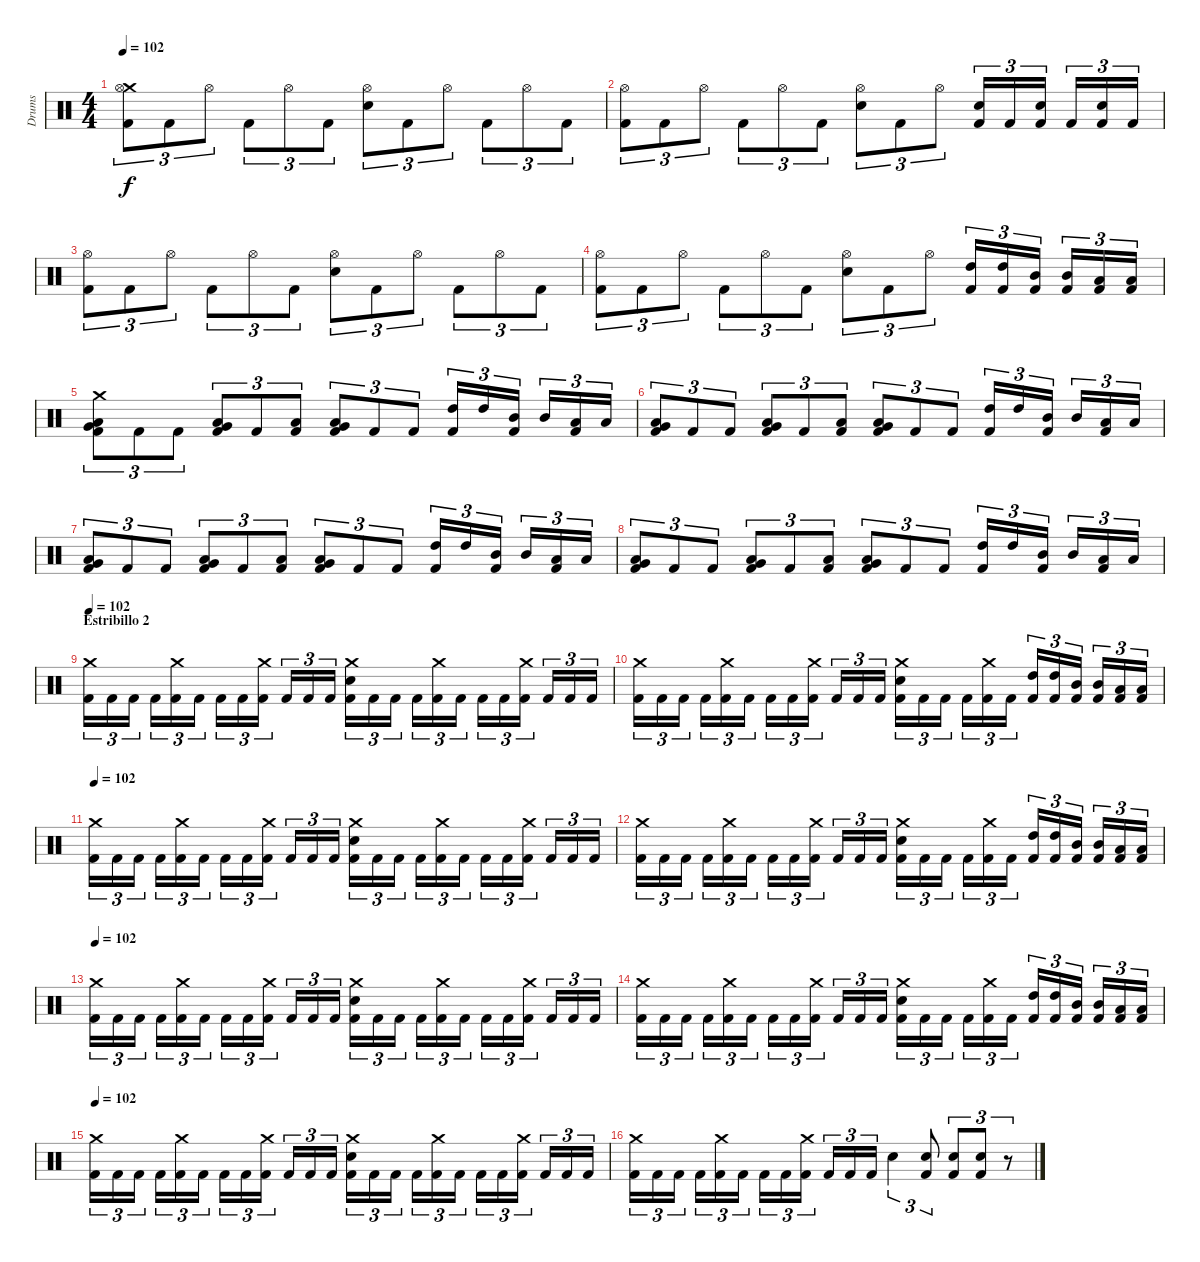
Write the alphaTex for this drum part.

\track ("Drums" "Drums") {instrument percussion}
\staff {score}
\articulation defaults
\ts (4 4)
\tempo 102
\clef neutral
\ks c
("Crash medium (hit)" "Hi-Hat (open)" "Kick (hit) 2").8{tu (3 2) dy f} "Kick (hit) 2".8{tu (3 2)} "Hi-Hat (open)".8{tu (3 2)} "Kick (hit) 2".8{tu (3 2)} "Hi-Hat (open)".8{tu (3 2)} "Kick (hit) 2".8{tu (3 2)} ("Hi-Hat (open)" "Snare (hit) 2").8{tu (3 2)} "Kick (hit) 2".8{tu (3 2)} "Hi-Hat (open)".8{tu (3 2)} "Kick (hit) 2".8{tu (3 2)} "Hi-Hat (open)".8{tu (3 2)} "Kick (hit) 2".8{tu (3 2)} |
("Hi-Hat (open)" "Kick (hit) 2").8{tu (3 2)} "Kick (hit) 2".8{tu (3 2)} "Hi-Hat (open)".8{tu (3 2)} "Kick (hit) 2".8{tu (3 2)} "Hi-Hat (open)".8{tu (3 2)} "Kick (hit) 2".8{tu (3 2)} ("Hi-Hat (open)" "Snare (hit) 2").8{tu (3 2)} "Kick (hit) 2".8{tu (3 2)} "Hi-Hat (open)".8{tu (3 2)} ("Snare (hit) 2" "Kick (hit) 2").16{tu (3 2)} "Kick (hit) 2".16{tu (3 2)} ("Snare (hit) 2" "Kick (hit) 2").16{tu (3 2)} "Kick (hit) 2".16{tu (3 2)} ("Snare (hit) 2" "Kick (hit) 2").16{tu (3 2)} "Kick (hit) 2".16{tu (3 2)} |
("Hi-Hat (open)" "Kick (hit) 2").8{tu (3 2)} "Kick (hit) 2".8{tu (3 2)} "Hi-Hat (open)".8{tu (3 2)} "Kick (hit) 2".8{tu (3 2)} "Hi-Hat (open)".8{tu (3 2)} "Kick (hit) 2".8{tu (3 2)} ("Hi-Hat (open)" "Snare (hit) 2").8{tu (3 2)} "Kick (hit) 2".8{tu (3 2)} "Hi-Hat (open)".8{tu (3 2)} "Kick (hit) 2".8{tu (3 2)} "Hi-Hat (open)".8{tu (3 2)} "Kick (hit) 2".8{tu (3 2)} |
("Hi-Hat (open)" "Kick (hit) 2").8{tu (3 2)} "Kick (hit) 2".8{tu (3 2)} "Hi-Hat (open)".8{tu (3 2)} "Kick (hit) 2".8{tu (3 2)} "Hi-Hat (open)".8{tu (3 2)} "Kick (hit) 2".8{tu (3 2)} ("Hi-Hat (open)" "Snare (hit) 2").8{tu (3 2)} "Kick (hit) 2".8{tu (3 2)} "Hi-Hat (open)".8{tu (3 2)} ("High Tom (hit)" "Kick (hit) 2").16{tu (3 2)} ("High Tom (hit)" "Kick (hit) 2").16{tu (3 2)} ("Mid Tom (hit)" "Kick (hit) 2").16{tu (3 2)} ("Mid Tom (hit)" "Kick (hit) 2").16{tu (3 2)} ("Low Tom (hit)" "Kick (hit) 2").16{tu (3 2)} ("Low Tom (hit)" "Kick (hit) 2").16{tu (3 2)} |
("Crash medium (hit)" "Very Low Tom (hit)" "Low Floor Tom (hit)" "Kick (hit) 2").8{tu (3 2)} "Kick (hit) 2".8{tu (3 2)} "Kick (hit) 2".8{tu (3 2)} ("Very Low Tom (hit)" "Low Floor Tom (hit)" "Kick (hit) 2").8{tu (3 2)} "Kick (hit) 2".8{tu (3 2)} ("Low Floor Tom (hit)" "Kick (hit) 2").8{tu (3 2)} ("Very Low Tom (hit)" "Low Floor Tom (hit)" "Kick (hit) 2").8{tu (3 2)} "Kick (hit) 2".8{tu (3 2)} "Kick (hit) 2".8{tu (3 2)} ("High Tom (hit)" "Kick (hit) 2").16{tu (3 2)} "High Tom (hit)".16{tu (3 2)} ("Mid Tom (hit)" "Kick (hit) 2").16{tu (3 2)} "Mid Tom (hit)".16{tu (3 2)} ("Low Tom (hit)" "Kick (hit) 2").16{tu (3 2)} "Low Tom (hit)".16{tu (3 2)} |
("Very Low Tom (hit)" "Low Floor Tom (hit)" "Kick (hit) 2").8{tu (3 2)} "Kick (hit) 2".8{tu (3 2)} "Kick (hit) 2".8{tu (3 2)} ("Very Low Tom (hit)" "Low Floor Tom (hit)" "Kick (hit) 2").8{tu (3 2)} "Kick (hit) 2".8{tu (3 2)} ("Low Floor Tom (hit)" "Kick (hit) 2").8{tu (3 2)} ("Very Low Tom (hit)" "Low Floor Tom (hit)" "Kick (hit) 2").8{tu (3 2)} "Kick (hit) 2".8{tu (3 2)} "Kick (hit) 2".8{tu (3 2)} ("High Tom (hit)" "Kick (hit) 2").16{tu (3 2)} "High Tom (hit)".16{tu (3 2)} ("Mid Tom (hit)" "Kick (hit) 2").16{tu (3 2)} "Mid Tom (hit)".16{tu (3 2)} ("Low Tom (hit)" "Kick (hit) 2").16{tu (3 2)} "Low Tom (hit)".16{tu (3 2)} |
("Very Low Tom (hit)" "Low Floor Tom (hit)" "Kick (hit) 2").8{tu (3 2)} "Kick (hit) 2".8{tu (3 2)} "Kick (hit) 2".8{tu (3 2)} ("Very Low Tom (hit)" "Low Floor Tom (hit)" "Kick (hit) 2").8{tu (3 2)} "Kick (hit) 2".8{tu (3 2)} ("Low Floor Tom (hit)" "Kick (hit) 2").8{tu (3 2)} ("Very Low Tom (hit)" "Low Floor Tom (hit)" "Kick (hit) 2").8{tu (3 2)} "Kick (hit) 2".8{tu (3 2)} "Kick (hit) 2".8{tu (3 2)} ("High Tom (hit)" "Kick (hit) 2").16{tu (3 2)} "High Tom (hit)".16{tu (3 2)} ("Mid Tom (hit)" "Kick (hit) 2").16{tu (3 2)} "Mid Tom (hit)".16{tu (3 2)} ("Low Tom (hit)" "Kick (hit) 2").16{tu (3 2)} "Low Tom (hit)".16{tu (3 2)} |
("Very Low Tom (hit)" "Low Floor Tom (hit)" "Kick (hit) 2").8{tu (3 2)} "Kick (hit) 2".8{tu (3 2)} "Kick (hit) 2".8{tu (3 2)} ("Very Low Tom (hit)" "Low Floor Tom (hit)" "Kick (hit) 2").8{tu (3 2)} "Kick (hit) 2".8{tu (3 2)} ("Low Floor Tom (hit)" "Kick (hit) 2").8{tu (3 2)} ("Very Low Tom (hit)" "Low Floor Tom (hit)" "Kick (hit) 2").8{tu (3 2)} "Kick (hit) 2".8{tu (3 2)} "Kick (hit) 2".8{tu (3 2)} ("High Tom (hit)" "Kick (hit) 2").16{tu (3 2)} "High Tom (hit)".16{tu (3 2)} ("Mid Tom (hit)" "Kick (hit) 2").16{tu (3 2)} "Mid Tom (hit)".16{tu (3 2)} ("Low Tom (hit)" "Kick (hit) 2").16{tu (3 2)} "Low Tom (hit)".16{tu (3 2)} |
\section ("" "Estribillo 2")
\tempo 102
("Crash medium (hit)" "Kick (hit) 2").16{tu (3 2)} "Kick (hit) 2".16{tu (3 2)} "Kick (hit) 2".16{tu (3 2)} "Kick (hit) 2".16{tu (3 2)} ("Crash medium (hit)" "Kick (hit) 2").16{tu (3 2)} "Kick (hit) 2".16{tu (3 2)} "Kick (hit) 2".16{tu (3 2)} "Kick (hit) 2".16{tu (3 2)} ("Crash medium (hit)" "Kick (hit) 2").16{tu (3 2)} "Kick (hit) 2".16{tu (3 2)} "Kick (hit) 2".16{tu (3 2)} "Kick (hit) 2".16{tu (3 2)} ("Crash medium (hit)" "Snare (hit) 2" "Kick (hit) 2").16{tu (3 2)} "Kick (hit) 2".16{tu (3 2)} "Kick (hit) 2".16{tu (3 2)} "Kick (hit) 2".16{tu (3 2)} ("Crash medium (hit)" "Kick (hit) 2").16{tu (3 2)} "Kick (hit) 2".16{tu (3 2)} "Kick (hit) 2".16{tu (3 2)} "Kick (hit) 2".16{tu (3 2)} ("Crash medium (hit)" "Kick (hit) 2").16{tu (3 2)} "Kick (hit) 2".16{tu (3 2)} "Kick (hit) 2".16{tu (3 2)} "Kick (hit) 2".16{tu (3 2)} |
("Crash medium (hit)" "Kick (hit) 2").16{tu (3 2)} "Kick (hit) 2".16{tu (3 2)} "Kick (hit) 2".16{tu (3 2)} "Kick (hit) 2".16{tu (3 2)} ("Crash medium (hit)" "Kick (hit) 2").16{tu (3 2)} "Kick (hit) 2".16{tu (3 2)} "Kick (hit) 2".16{tu (3 2)} "Kick (hit) 2".16{tu (3 2)} ("Crash medium (hit)" "Kick (hit) 2").16{tu (3 2)} "Kick (hit) 2".16{tu (3 2)} "Kick (hit) 2".16{tu (3 2)} "Kick (hit) 2".16{tu (3 2)} ("Crash medium (hit)" "Snare (hit) 2" "Kick (hit) 2").16{tu (3 2)} "Kick (hit) 2".16{tu (3 2)} "Kick (hit) 2".16{tu (3 2)} "Kick (hit) 2".16{tu (3 2)} ("Crash medium (hit)" "Kick (hit) 2").16{tu (3 2)} "Kick (hit) 2".16{tu (3 2)} ("High Tom (hit)" "Kick (hit) 2").16{tu (3 2)} ("High Tom (hit)" "Kick (hit) 2").16{tu (3 2)} ("Mid Tom (hit)" "Kick (hit) 2").16{tu (3 2)} ("Mid Tom (hit)" "Kick (hit) 2").16{tu (3 2)} ("Low Tom (hit)" "Kick (hit) 2").16{tu (3 2)} ("Low Tom (hit)" "Kick (hit) 2").16{tu (3 2)} |
\tempo 102
("Crash medium (hit)" "Kick (hit) 2").16{tu (3 2)} "Kick (hit) 2".16{tu (3 2)} "Kick (hit) 2".16{tu (3 2)} "Kick (hit) 2".16{tu (3 2)} ("Crash medium (hit)" "Kick (hit) 2").16{tu (3 2)} "Kick (hit) 2".16{tu (3 2)} "Kick (hit) 2".16{tu (3 2)} "Kick (hit) 2".16{tu (3 2)} ("Crash medium (hit)" "Kick (hit) 2").16{tu (3 2)} "Kick (hit) 2".16{tu (3 2)} "Kick (hit) 2".16{tu (3 2)} "Kick (hit) 2".16{tu (3 2)} ("Crash medium (hit)" "Snare (hit) 2" "Kick (hit) 2").16{tu (3 2)} "Kick (hit) 2".16{tu (3 2)} "Kick (hit) 2".16{tu (3 2)} "Kick (hit) 2".16{tu (3 2)} ("Crash medium (hit)" "Kick (hit) 2").16{tu (3 2)} "Kick (hit) 2".16{tu (3 2)} "Kick (hit) 2".16{tu (3 2)} "Kick (hit) 2".16{tu (3 2)} ("Crash medium (hit)" "Kick (hit) 2").16{tu (3 2)} "Kick (hit) 2".16{tu (3 2)} "Kick (hit) 2".16{tu (3 2)} "Kick (hit) 2".16{tu (3 2)} |
("Crash medium (hit)" "Kick (hit) 2").16{tu (3 2)} "Kick (hit) 2".16{tu (3 2)} "Kick (hit) 2".16{tu (3 2)} "Kick (hit) 2".16{tu (3 2)} ("Crash medium (hit)" "Kick (hit) 2").16{tu (3 2)} "Kick (hit) 2".16{tu (3 2)} "Kick (hit) 2".16{tu (3 2)} "Kick (hit) 2".16{tu (3 2)} ("Crash medium (hit)" "Kick (hit) 2").16{tu (3 2)} "Kick (hit) 2".16{tu (3 2)} "Kick (hit) 2".16{tu (3 2)} "Kick (hit) 2".16{tu (3 2)} ("Crash medium (hit)" "Snare (hit) 2" "Kick (hit) 2").16{tu (3 2)} "Kick (hit) 2".16{tu (3 2)} "Kick (hit) 2".16{tu (3 2)} "Kick (hit) 2".16{tu (3 2)} ("Crash medium (hit)" "Kick (hit) 2").16{tu (3 2)} "Kick (hit) 2".16{tu (3 2)} ("High Tom (hit)" "Kick (hit) 2").16{tu (3 2)} ("High Tom (hit)" "Kick (hit) 2").16{tu (3 2)} ("Mid Tom (hit)" "Kick (hit) 2").16{tu (3 2)} ("Mid Tom (hit)" "Kick (hit) 2").16{tu (3 2)} ("Low Tom (hit)" "Kick (hit) 2").16{tu (3 2)} ("Low Tom (hit)" "Kick (hit) 2").16{tu (3 2)} |
\tempo 102
("Crash medium (hit)" "Kick (hit) 2").16{tu (3 2)} "Kick (hit) 2".16{tu (3 2)} "Kick (hit) 2".16{tu (3 2)} "Kick (hit) 2".16{tu (3 2)} ("Crash medium (hit)" "Kick (hit) 2").16{tu (3 2)} "Kick (hit) 2".16{tu (3 2)} "Kick (hit) 2".16{tu (3 2)} "Kick (hit) 2".16{tu (3 2)} ("Crash medium (hit)" "Kick (hit) 2").16{tu (3 2)} "Kick (hit) 2".16{tu (3 2)} "Kick (hit) 2".16{tu (3 2)} "Kick (hit) 2".16{tu (3 2)} ("Crash medium (hit)" "Snare (hit) 2" "Kick (hit) 2").16{tu (3 2)} "Kick (hit) 2".16{tu (3 2)} "Kick (hit) 2".16{tu (3 2)} "Kick (hit) 2".16{tu (3 2)} ("Crash medium (hit)" "Kick (hit) 2").16{tu (3 2)} "Kick (hit) 2".16{tu (3 2)} "Kick (hit) 2".16{tu (3 2)} "Kick (hit) 2".16{tu (3 2)} ("Crash medium (hit)" "Kick (hit) 2").16{tu (3 2)} "Kick (hit) 2".16{tu (3 2)} "Kick (hit) 2".16{tu (3 2)} "Kick (hit) 2".16{tu (3 2)} |
("Crash medium (hit)" "Kick (hit) 2").16{tu (3 2)} "Kick (hit) 2".16{tu (3 2)} "Kick (hit) 2".16{tu (3 2)} "Kick (hit) 2".16{tu (3 2)} ("Crash medium (hit)" "Kick (hit) 2").16{tu (3 2)} "Kick (hit) 2".16{tu (3 2)} "Kick (hit) 2".16{tu (3 2)} "Kick (hit) 2".16{tu (3 2)} ("Crash medium (hit)" "Kick (hit) 2").16{tu (3 2)} "Kick (hit) 2".16{tu (3 2)} "Kick (hit) 2".16{tu (3 2)} "Kick (hit) 2".16{tu (3 2)} ("Crash medium (hit)" "Snare (hit) 2" "Kick (hit) 2").16{tu (3 2)} "Kick (hit) 2".16{tu (3 2)} "Kick (hit) 2".16{tu (3 2)} "Kick (hit) 2".16{tu (3 2)} ("Crash medium (hit)" "Kick (hit) 2").16{tu (3 2)} "Kick (hit) 2".16{tu (3 2)} ("High Tom (hit)" "Kick (hit) 2").16{tu (3 2)} ("High Tom (hit)" "Kick (hit) 2").16{tu (3 2)} ("Mid Tom (hit)" "Kick (hit) 2").16{tu (3 2)} ("Mid Tom (hit)" "Kick (hit) 2").16{tu (3 2)} ("Low Tom (hit)" "Kick (hit) 2").16{tu (3 2)} ("Low Tom (hit)" "Kick (hit) 2").16{tu (3 2)} |
\tempo 102
("Crash medium (hit)" "Kick (hit) 2").16{tu (3 2)} "Kick (hit) 2".16{tu (3 2)} "Kick (hit) 2".16{tu (3 2)} "Kick (hit) 2".16{tu (3 2)} ("Crash medium (hit)" "Kick (hit) 2").16{tu (3 2)} "Kick (hit) 2".16{tu (3 2)} "Kick (hit) 2".16{tu (3 2)} "Kick (hit) 2".16{tu (3 2)} ("Crash medium (hit)" "Kick (hit) 2").16{tu (3 2)} "Kick (hit) 2".16{tu (3 2)} "Kick (hit) 2".16{tu (3 2)} "Kick (hit) 2".16{tu (3 2)} ("Crash medium (hit)" "Snare (hit) 2" "Kick (hit) 2").16{tu (3 2)} "Kick (hit) 2".16{tu (3 2)} "Kick (hit) 2".16{tu (3 2)} "Kick (hit) 2".16{tu (3 2)} ("Crash medium (hit)" "Kick (hit) 2").16{tu (3 2)} "Kick (hit) 2".16{tu (3 2)} "Kick (hit) 2".16{tu (3 2)} "Kick (hit) 2".16{tu (3 2)} ("Crash medium (hit)" "Kick (hit) 2").16{tu (3 2)} "Kick (hit) 2".16{tu (3 2)} "Kick (hit) 2".16{tu (3 2)} "Kick (hit) 2".16{tu (3 2)} |
("Crash medium (hit)" "Kick (hit) 2").16{tu (3 2)} "Kick (hit) 2".16{tu (3 2)} "Kick (hit) 2".16{tu (3 2)} "Kick (hit) 2".16{tu (3 2)} ("Crash medium (hit)" "Kick (hit) 2").16{tu (3 2)} "Kick (hit) 2".16{tu (3 2)} "Kick (hit) 2".16{tu (3 2)} "Kick (hit) 2".16{tu (3 2)} ("Crash medium (hit)" "Kick (hit) 2").16{tu (3 2)} "Kick (hit) 2".16{tu (3 2)} "Kick (hit) 2".16{tu (3 2)} "Kick (hit) 2".16{tu (3 2)} "Snare (hit) 2".4{tu (3 2)} ("Snare (hit) 2" "Kick (hit) 2").8{tu (3 2)} ("Snare (hit) 2" "Kick (hit) 2").8{tu (3 2)} ("Snare (hit) 2" "Kick (hit) 2").8{tu (3 2)} r.8{tu (3 2)}
